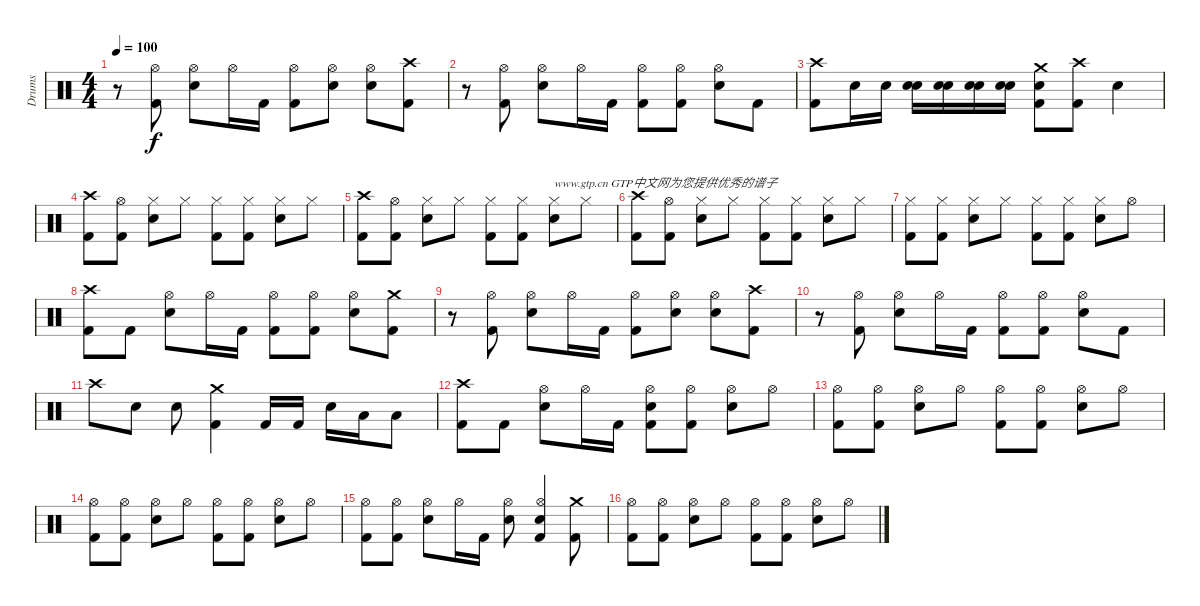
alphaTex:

\track ("Drums" "Drums") {instrument percussion}
\staff {score}
\articulation defaults
\ts (4 4)
\tempo 100
\clef neutral
\ks c
r.8{dy f} ("Kick (hit) 2" "Hi-Hat (open)").8 ("Hi-Hat (open)" "Snare (hit) 2").8 "Hi-Hat (open)".16 "Kick (hit) 2".16 ("Kick (hit) 2" "Hi-Hat (open)").8 ("Hi-Hat (open)" "Snare (hit) 2").8 ("Hi-Hat (open)" "Snare (hit) 2").8 ("Kick (hit) 2" "Crash high (hit)").8 |
r.8 ("Kick (hit) 2" "Hi-Hat (open)").8 ("Hi-Hat (open)" "Snare (hit) 2").8 "Hi-Hat (open)".16 "Kick (hit) 2".16 ("Kick (hit) 2" "Hi-Hat (open)").8 ("Kick (hit) 2" "Hi-Hat (open)").8 ("Hi-Hat (open)" "Snare (hit) 2").8 "Kick (hit) 2".8 |
("Kick (hit) 2" "Crash high (hit)").8 "Snare (hit) 2".16 "Snare (hit) 2".16 ("Snare (hit)" "Snare (hit) 2").16 ("Snare (hit)" "Snare (hit) 2").16 ("Snare (hit)" "Snare (hit) 2").16 ("Snare (hit)" "Snare (hit) 2").16 ("Snare (hit)" "Kick (hit) 2" "Crash medium (hit)").8 ("Kick (hit) 2" "Crash high (hit)").8 "Snare (hit) 2".4 |
("Kick (hit) 2" "Crash high (hit)").8 ("Kick (hit) 2" "Hi-Hat (open)").8 ("Hi-Hat (closed)" "Snare (hit) 2").8 "Hi-Hat (closed)".8 ("Kick (hit) 2" "Hi-Hat (closed)").8 ("Kick (hit) 2" "Hi-Hat (closed)").8 ("Hi-Hat (closed)" "Snare (hit) 2").8 "Hi-Hat (closed)".8 |
("Kick (hit) 2" "Crash high (hit)").8 ("Kick (hit) 2" "Hi-Hat (open)").8 ("Hi-Hat (closed)" "Snare (hit) 2").8 "Hi-Hat (closed)".8 ("Kick (hit) 2" "Hi-Hat (closed)").8 ("Kick (hit) 2" "Hi-Hat (closed)").8 ("Hi-Hat (closed)" "Snare (hit) 2").8{txt "www.gtp.cn GTP中文网为您提供优秀的谱子"} "Hi-Hat (closed)".8 |
("Kick (hit) 2" "Crash high (hit)").8 ("Kick (hit) 2" "Hi-Hat (open)").8 ("Hi-Hat (closed)" "Snare (hit) 2").8 "Hi-Hat (closed)".8 ("Kick (hit) 2" "Hi-Hat (closed)").8 ("Kick (hit) 2" "Hi-Hat (closed)").8 ("Hi-Hat (closed)" "Snare (hit) 2").8 "Hi-Hat (closed)".8 |
("Kick (hit) 2" "Hi-Hat (closed)").8 ("Kick (hit) 2" "Hi-Hat (closed)").8 ("Hi-Hat (closed)" "Snare (hit) 2").8 "Hi-Hat (closed)".8 ("Kick (hit) 2" "Hi-Hat (closed)").8 ("Kick (hit) 2" "Hi-Hat (closed)").8 ("Hi-Hat (closed)" "Snare (hit) 2").8 "Hi-Hat (open)".8 |
("Kick (hit) 2" "Crash high (hit)").8 "Kick (hit) 2".8 ("Hi-Hat (open)" "Snare (hit) 2").8 "Hi-Hat (open)".16 "Kick (hit) 2".16 ("Kick (hit) 2" "Hi-Hat (open)").8 ("Kick (hit) 2" "Hi-Hat (open)").8 ("Hi-Hat (open)" "Snare (hit) 2").8 ("Kick (hit) 2" "Crash medium (hit)").8 |
r.8 ("Kick (hit) 2" "Hi-Hat (open)").8 ("Hi-Hat (open)" "Snare (hit) 2").8 "Hi-Hat (open)".16 "Kick (hit) 2".16 ("Kick (hit) 2" "Hi-Hat (open)").8 ("Hi-Hat (open)" "Snare (hit) 2").8 ("Hi-Hat (open)" "Snare (hit) 2").8 ("Kick (hit) 2" "Crash high (hit)").8 |
r.8 ("Kick (hit) 2" "Hi-Hat (open)").8 ("Hi-Hat (open)" "Snare (hit) 2").8 "Hi-Hat (open)".16 "Kick (hit) 2".16 ("Kick (hit) 2" "Hi-Hat (open)").8 ("Kick (hit) 2" "Hi-Hat (open)").8 ("Hi-Hat (open)" "Snare (hit) 2").8 "Kick (hit) 2".8 |
"Crash high (hit)".8 "Snare (hit) 2".8 "Snare (hit) 2".8 ("Kick (hit) 2" "Crash medium (hit)").4 "Kick (hit) 2".16 "Kick (hit) 2".16 "Snare (hit) 2".16 "Low Tom (hit)".16 "Low Floor Tom (hit)".8 |
("Kick (hit) 2" "Crash high (hit)").8 "Kick (hit) 2".8 ("Hi-Hat (open)" "Snare (hit) 2").8 "Hi-Hat (open)".16 "Kick (hit) 2".16 ("Snare (hit)" "Kick (hit) 2" "Hi-Hat (open)").8 ("Kick (hit) 2" "Hi-Hat (open)").8 ("Hi-Hat (open)" "Snare (hit) 2").8 "Hi-Hat (open)".8 |
("Kick (hit) 2" "Hi-Hat (open)").8 ("Kick (hit) 2" "Hi-Hat (open)").8 ("Hi-Hat (open)" "Snare (hit) 2").8 "Hi-Hat (open)".8 ("Kick (hit) 2" "Hi-Hat (open)").8 ("Kick (hit) 2" "Hi-Hat (open)").8 ("Hi-Hat (open)" "Snare (hit) 2").8 "Hi-Hat (open)".8 |
("Kick (hit) 2" "Hi-Hat (open)").8 ("Kick (hit) 2" "Hi-Hat (open)").8 ("Hi-Hat (open)" "Snare (hit) 2").8 "Hi-Hat (open)".8 ("Kick (hit) 2" "Hi-Hat (open)").8 ("Kick (hit) 2" "Hi-Hat (open)").8 ("Hi-Hat (open)" "Snare (hit) 2").8 "Hi-Hat (open)".8 |
("Kick (hit) 2" "Hi-Hat (open)").8 ("Kick (hit) 2" "Hi-Hat (open)").8 ("Hi-Hat (open)" "Snare (hit) 2").8 "Hi-Hat (open)".16 "Kick (hit) 2".16 ("Hi-Hat (open)" "Snare (hit) 2").8 ("Kick (hit) 2" "Hi-Hat (open)" "Snare (hit) 2").4 ("Kick (hit) 2" "Crash medium (hit)").8 |
("Kick (hit) 2" "Hi-Hat (open)").8 ("Kick (hit) 2" "Hi-Hat (open)").8 ("Hi-Hat (open)" "Snare (hit) 2").8 "Hi-Hat (open)".8 ("Kick (hit) 2" "Hi-Hat (open)").8 ("Kick (hit) 2" "Hi-Hat (open)").8 ("Hi-Hat (open)" "Snare (hit) 2").8 "Hi-Hat (open)".8
